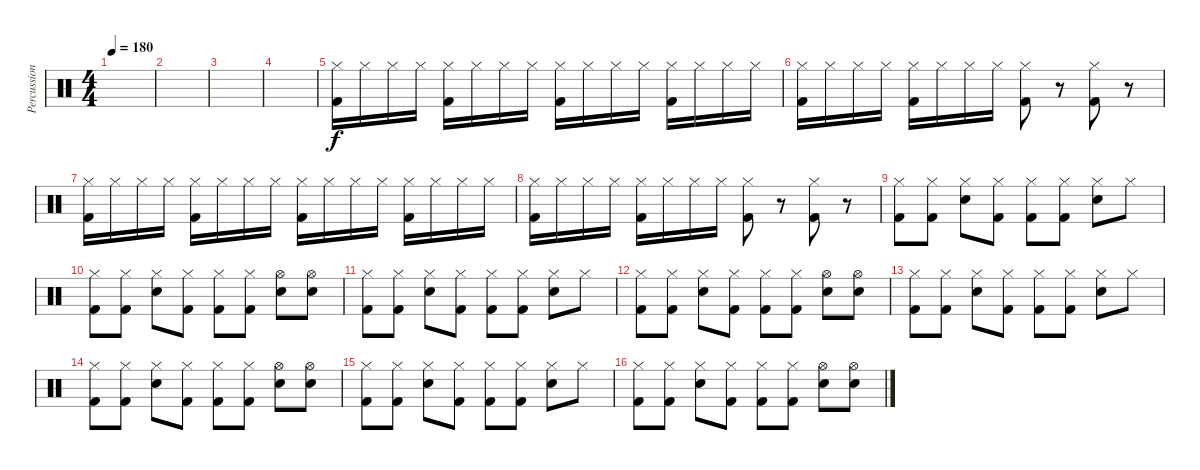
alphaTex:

\track ("Percussion" "Percussion") {instrument percussion}
\staff {score}
\articulation defaults
\ts (4 4)
\tempo 180
\clef neutral
\ks c
|
|
|
|
("Hi-Hat (closed)" "Kick (hit) 2").16{dy f} "Hi-Hat (closed)".16 "Hi-Hat (closed)".16 "Hi-Hat (closed)".16 ("Hi-Hat (closed)" "Kick (hit) 2").16 "Hi-Hat (closed)".16 "Hi-Hat (closed)".16 "Hi-Hat (closed)".16 ("Hi-Hat (closed)" "Kick (hit) 2").16 "Hi-Hat (closed)".16 "Hi-Hat (closed)".16 "Hi-Hat (closed)".16 ("Hi-Hat (closed)" "Kick (hit) 2").16 "Hi-Hat (closed)".16 "Hi-Hat (closed)".16 "Hi-Hat (closed)".16 |
("Hi-Hat (closed)" "Kick (hit) 2").16 "Hi-Hat (closed)".16 "Hi-Hat (closed)".16 "Hi-Hat (closed)".16 ("Hi-Hat (closed)" "Kick (hit) 2").16 "Hi-Hat (closed)".16 "Hi-Hat (closed)".16 "Hi-Hat (closed)".16 ("Hi-Hat (closed)" "Kick (hit) 2").8 r.8 ("Hi-Hat (closed)" "Kick (hit) 2").8 r.8 |
("Hi-Hat (closed)" "Kick (hit) 2").16 "Hi-Hat (closed)".16 "Hi-Hat (closed)".16 "Hi-Hat (closed)".16 ("Hi-Hat (closed)" "Kick (hit) 2").16 "Hi-Hat (closed)".16 "Hi-Hat (closed)".16 "Hi-Hat (closed)".16 ("Hi-Hat (closed)" "Kick (hit) 2").16 "Hi-Hat (closed)".16 "Hi-Hat (closed)".16 "Hi-Hat (closed)".16 ("Hi-Hat (closed)" "Kick (hit) 2").16 "Hi-Hat (closed)".16 "Hi-Hat (closed)".16 "Hi-Hat (closed)".16 |
("Hi-Hat (closed)" "Kick (hit) 2").16 "Hi-Hat (closed)".16 "Hi-Hat (closed)".16 "Hi-Hat (closed)".16 ("Hi-Hat (closed)" "Kick (hit) 2").16 "Hi-Hat (closed)".16 "Hi-Hat (closed)".16 "Hi-Hat (closed)".16 ("Hi-Hat (closed)" "Kick (hit) 2").8 r.8 ("Hi-Hat (closed)" "Kick (hit) 2").8 r.8 |
("Hi-Hat (closed)" "Kick (hit) 2").8 ("Hi-Hat (closed)" "Kick (hit) 2").8 ("Hi-Hat (closed)" "Electric Snare (hit)").8 ("Hi-Hat (closed)" "Kick (hit) 2").8 ("Hi-Hat (closed)" "Kick (hit) 2").8 ("Hi-Hat (closed)" "Kick (hit) 2").8 ("Hi-Hat (closed)" "Electric Snare (hit)").8 "Hi-Hat (closed)".8 |
("Hi-Hat (closed)" "Kick (hit) 2").8 ("Hi-Hat (closed)" "Kick (hit) 2").8 ("Hi-Hat (closed)" "Electric Snare (hit)").8 ("Hi-Hat (closed)" "Kick (hit) 2").8 ("Hi-Hat (closed)" "Kick (hit) 2").8 ("Hi-Hat (closed)" "Kick (hit) 2").8 ("Hi-Hat (open)" "Electric Snare (hit)").8 ("Hi-Hat (open)" "Electric Snare (hit)").8 |
("Hi-Hat (closed)" "Kick (hit) 2").8 ("Hi-Hat (closed)" "Kick (hit) 2").8 ("Hi-Hat (closed)" "Electric Snare (hit)").8 ("Hi-Hat (closed)" "Kick (hit) 2").8 ("Hi-Hat (closed)" "Kick (hit) 2").8 ("Hi-Hat (closed)" "Kick (hit) 2").8 ("Hi-Hat (closed)" "Electric Snare (hit)").8 "Hi-Hat (closed)".8 |
("Hi-Hat (closed)" "Kick (hit) 2").8 ("Hi-Hat (closed)" "Kick (hit) 2").8 ("Hi-Hat (closed)" "Electric Snare (hit)").8 ("Hi-Hat (closed)" "Kick (hit) 2").8 ("Hi-Hat (closed)" "Kick (hit) 2").8 ("Hi-Hat (closed)" "Kick (hit) 2").8 ("Hi-Hat (open)" "Electric Snare (hit)").8 ("Hi-Hat (open)" "Electric Snare (hit)").8 |
("Hi-Hat (closed)" "Kick (hit) 2").8 ("Hi-Hat (closed)" "Kick (hit) 2").8 ("Hi-Hat (closed)" "Electric Snare (hit)").8 ("Hi-Hat (closed)" "Kick (hit) 2").8 ("Hi-Hat (closed)" "Kick (hit) 2").8 ("Hi-Hat (closed)" "Kick (hit) 2").8 ("Hi-Hat (closed)" "Electric Snare (hit)").8 "Hi-Hat (closed)".8 |
("Hi-Hat (closed)" "Kick (hit) 2").8 ("Hi-Hat (closed)" "Kick (hit) 2").8 ("Hi-Hat (closed)" "Electric Snare (hit)").8 ("Hi-Hat (closed)" "Kick (hit) 2").8 ("Hi-Hat (closed)" "Kick (hit) 2").8 ("Hi-Hat (closed)" "Kick (hit) 2").8 ("Hi-Hat (open)" "Electric Snare (hit)").8 ("Hi-Hat (open)" "Electric Snare (hit)").8 |
("Hi-Hat (closed)" "Kick (hit) 2").8 ("Hi-Hat (closed)" "Kick (hit) 2").8 ("Hi-Hat (closed)" "Electric Snare (hit)").8 ("Hi-Hat (closed)" "Kick (hit) 2").8 ("Hi-Hat (closed)" "Kick (hit) 2").8 ("Hi-Hat (closed)" "Kick (hit) 2").8 ("Hi-Hat (closed)" "Electric Snare (hit)").8 "Hi-Hat (closed)".8 |
("Hi-Hat (closed)" "Kick (hit) 2").8 ("Hi-Hat (closed)" "Kick (hit) 2").8 ("Hi-Hat (closed)" "Electric Snare (hit)").8 ("Hi-Hat (closed)" "Kick (hit) 2").8 ("Hi-Hat (closed)" "Kick (hit) 2").8 ("Hi-Hat (closed)" "Kick (hit) 2").8 ("Hi-Hat (open)" "Electric Snare (hit)").8 ("Hi-Hat (open)" "Electric Snare (hit)").8
